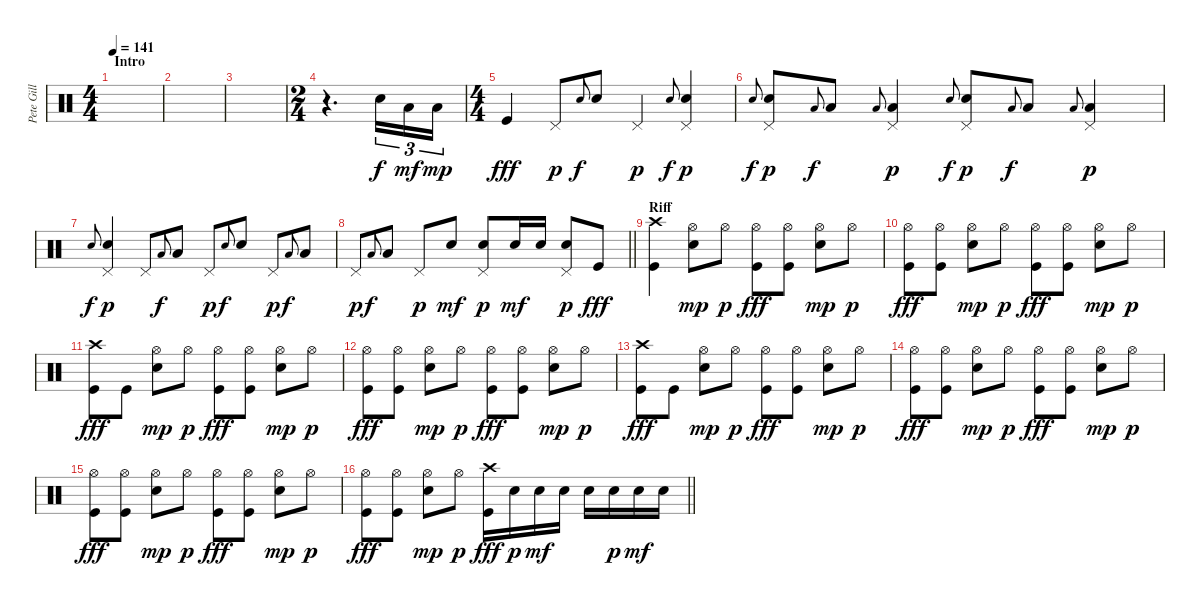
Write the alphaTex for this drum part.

\track ("Pete Gill" "Pete Gill") {instrument percussion}
\staff {score}
\articulation defaults
\ts (4 4)
\section ("" "Intro")
\tempo 141
\clef neutral
\ks c
|
|
|
\ts (2 4)
r.4{d} "Electric Snare (hit)".16{tu (3 2)} "Low Tom (hit)".16{tu (3 2) dy mf} "Low Tom (hit)".16{tu (3 2) dy mp} |
\ts (4 4)
"Kick (hit)".4{dy fff} "Pedal Hi-Hat (hit)".8{dy p} "Electric Snare (hit)".8{gr onbeat dy f} "Electric Snare (hit)".8 "Pedal Hi-Hat (hit)".4{dy p} "Electric Snare (hit)".8{gr onbeat dy f} ("Pedal Hi-Hat (hit)" "Electric Snare (hit)").4{dy p} |
"Electric Snare (hit)".8{gr onbeat dy f} ("Pedal Hi-Hat (hit)" "Electric Snare (hit)").8{dy p} "Low Tom (hit)".8{gr onbeat dy f} "Low Tom (hit)".8 "Low Tom (hit)".8{gr onbeat} ("Pedal Hi-Hat (hit)" "Low Tom (hit)").4{dy p} "Electric Snare (hit)".8{gr onbeat dy f} ("Pedal Hi-Hat (hit)" "Electric Snare (hit)").8{dy p} "Low Tom (hit)".8{gr onbeat dy f} "Low Tom (hit)".8 "Low Tom (hit)".8{gr onbeat} ("Pedal Hi-Hat (hit)" "Low Tom (hit)").4{dy p} |
"Electric Snare (hit)".8{gr onbeat dy f} ("Pedal Hi-Hat (hit)" "Electric Snare (hit)").4{dy p} "Pedal Hi-Hat (hit)".8 "Low Tom (hit)".8{gr onbeat dy f} "Low Tom (hit)".8 "Pedal Hi-Hat (hit)".8{dy p} "Electric Snare (hit)".8{gr onbeat dy f} "Electric Snare (hit)".8 "Pedal Hi-Hat (hit)".8{dy p} "Low Tom (hit)".8{gr onbeat dy f} "Low Tom (hit)".8 |
\barLineRight lightlight "Pedal Hi-Hat (hit)".8{dy p} "Low Tom (hit)".8{gr onbeat dy f} "Low Tom (hit)".8 "Pedal Hi-Hat (hit)".8{dy p} "Electric Snare (hit)".8{dy mf}
("Pedal Hi-Hat (hit)" "Electric Snare (hit)").8{dy p} "Electric Snare (hit)".16{dy mf} "Electric Snare (hit)".16 ("Pedal Hi-Hat (hit)" "Electric Snare (hit)").8{dy p} "Kick (hit)".8{dy fff} |
\section ("" "Riff")
("Crash high (hit)" "Kick (hit)").4 ("Hi-Hat (open)" "Electric Snare (hit)").8{dy mp} "Hi-Hat (open)".8{dy p} ("Hi-Hat (open)" "Kick (hit)").8{dy fff} ("Hi-Hat (open)" "Kick (hit)").8 ("Hi-Hat (open)" "Electric Snare (hit)").8{dy mp} "Hi-Hat (open)".8{dy p} |
("Hi-Hat (open)" "Kick (hit)").8{dy fff} ("Hi-Hat (open)" "Kick (hit)").8 ("Hi-Hat (open)" "Electric Snare (hit)").8{dy mp} "Hi-Hat (open)".8{dy p} ("Hi-Hat (open)" "Kick (hit)").8{dy fff} ("Hi-Hat (open)" "Kick (hit)").8 ("Hi-Hat (open)" "Electric Snare (hit)").8{dy mp} "Hi-Hat (open)".8{dy p} |
("Crash high (hit)" "Kick (hit)").8{dy fff} "Kick (hit)".8 ("Hi-Hat (open)" "Electric Snare (hit)").8{dy mp} "Hi-Hat (open)".8{dy p} ("Hi-Hat (open)" "Kick (hit)").8{dy fff} ("Hi-Hat (open)" "Kick (hit)").8 ("Hi-Hat (open)" "Electric Snare (hit)").8{dy mp} "Hi-Hat (open)".8{dy p} |
("Hi-Hat (open)" "Kick (hit)").8{dy fff} ("Hi-Hat (open)" "Kick (hit)").8 ("Hi-Hat (open)" "Electric Snare (hit)").8{dy mp} "Hi-Hat (open)".8{dy p} ("Hi-Hat (open)" "Kick (hit)").8{dy fff} ("Hi-Hat (open)" "Kick (hit)").8 ("Hi-Hat (open)" "Electric Snare (hit)").8{dy mp} "Hi-Hat (open)".8{dy p} |
("Crash high (hit)" "Kick (hit)").8{dy fff} "Kick (hit)".8 ("Hi-Hat (open)" "Electric Snare (hit)").8{dy mp} "Hi-Hat (open)".8{dy p} ("Hi-Hat (open)" "Kick (hit)").8{dy fff} ("Hi-Hat (open)" "Kick (hit)").8 ("Hi-Hat (open)" "Electric Snare (hit)").8{dy mp} "Hi-Hat (open)".8{dy p} |
("Hi-Hat (open)" "Kick (hit)").8{dy fff} ("Hi-Hat (open)" "Kick (hit)").8 ("Hi-Hat (open)" "Electric Snare (hit)").8{dy mp} "Hi-Hat (open)".8{dy p} ("Hi-Hat (open)" "Kick (hit)").8{dy fff} ("Hi-Hat (open)" "Kick (hit)").8 ("Hi-Hat (open)" "Electric Snare (hit)").8{dy mp} "Hi-Hat (open)".8{dy p} |
("Hi-Hat (open)" "Kick (hit)").8{dy fff} ("Hi-Hat (open)" "Kick (hit)").8 ("Hi-Hat (open)" "Electric Snare (hit)").8{dy mp} "Hi-Hat (open)".8{dy p} ("Hi-Hat (open)" "Kick (hit)").8{dy fff} ("Hi-Hat (open)" "Kick (hit)").8 ("Hi-Hat (open)" "Electric Snare (hit)").8{dy mp} "Hi-Hat (open)".8{dy p} |
\barLineRight lightlight
("Hi-Hat (open)" "Kick (hit)").8{dy fff} ("Hi-Hat (open)" "Kick (hit)").8 ("Hi-Hat (open)" "Electric Snare (hit)").8{dy mp} "Hi-Hat (open)".8{dy p} ("Crash high (hit)" "Kick (hit)").16{dy fff} "Electric Snare (hit)".16{dy p} "Electric Snare (hit)".16{dy mf} "Electric Snare (hit)".16 "Electric Snare (hit)".16 "Electric Snare (hit)".16{dy p} "Electric Snare (hit)".16{dy mf} "Electric Snare (hit)".16
